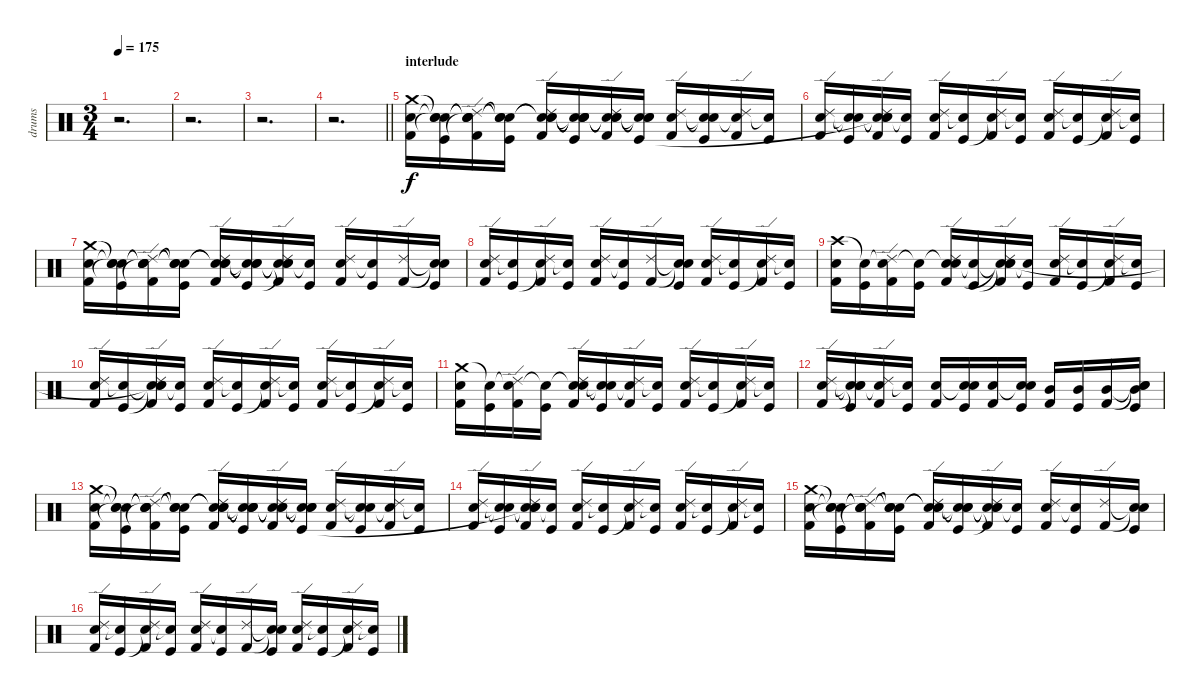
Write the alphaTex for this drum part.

\track ("drums" "drums") {instrument percussion}
\staff {score}
\articulation defaults
\ts (3 4)
\tempo 175
\clef neutral
\ks c
r.2{d dy f} |
r.2{d} |
r.2{d} |
\barLineRight lightlight
r.2{d} |
\section ("" "interlude")
("Crash medium (hit)" "Snare (hit) 2" "Kick (hit) 2").16 ("Snare (hit)"{t} "Snare (hit)"{t} "Snare (hit)"{t} "Kick (hit)").16 ("Snare (hit)"{t} "Snare (hit)"{t} "Ride (edge) 2" "Snare (hit)"{t} "Kick (hit) 2").16 ("Snare (hit)"{t} "Snare (hit)"{t} "Snare (hit)"{t} "Kick (hit)").16 ("Snare (hit)"{t} "Snare (hit)"{t} "Ride (edge) 2" "Snare (hit) 2" "Kick (hit) 2").16 ("Snare (hit)"{t} "Snare (hit)"{t} "Snare (hit)"{t} "Snare (hit)"{t} "Kick (hit)").16 ("Snare (hit)"{t} "Snare (hit)"{t} "Ride (edge) 2" "Snare (hit)"{t} "Kick (hit) 2").16 ("Snare (hit)"{t} "Snare (hit)"{t} "Snare (hit)"{t} "Kick (hit)").16 ("Ride (edge) 2" "Snare (hit) 2" "Kick (hit) 2").16 ("Snare (hit)"{t} "Snare (hit)"{t} "Kick (hit)").16 ("Ride (edge) 2" "Snare (hit)"{t} "Kick (hit) 2").16 ("Snare (hit)"{t} "Kick (hit)").16 |
("Ride (edge) 2" "Snare (hit) 2" "Kick (hit) 2").16 ("Snare (hit)"{t} "Snare (hit)"{t} "Kick (hit)").16 ("Snare (hit)"{t} "Snare (hit)"{t} "Ride (edge) 2" "Snare (hit)"{t} "Kick (hit) 2").16 ("Snare (hit)"{t} "Kick (hit)").16 ("Ride (edge) 2" "Snare (hit) 2" "Kick (hit) 2").16 ("Snare (hit)"{t} "Kick (hit)").16 ("Ride (edge) 2" "Snare (hit)"{t} "Kick (hit) 2").16 ("Snare (hit)"{t} "Kick (hit)").16 ("Ride (edge) 2" "Snare (hit) 2" "Kick (hit) 2").16 ("Snare (hit)"{t} "Kick (hit)").16 ("Ride (edge) 2" "Snare (hit)"{t} "Kick (hit) 2").16 ("Snare (hit)"{t} "Kick (hit)").16 |
("Crash medium (hit)" "Snare (hit) 2" "Kick (hit) 2").16 ("Snare (hit)"{t} "Snare (hit)"{t} "Snare (hit)"{t} "Kick (hit)").16 ("Snare (hit)"{t} "Snare (hit)"{t} "Ride (edge) 2" "Snare (hit)"{t} "Kick (hit) 2").16 ("Snare (hit)"{t} "Snare (hit)"{t} "Snare (hit)"{t} "Kick (hit)").16 ("Snare (hit)"{t} "Snare (hit)"{t} "Ride (edge) 2" "Snare (hit) 2" "Kick (hit) 2").16 ("Snare (hit)"{t} "Snare (hit)"{t} "Snare (hit)"{t} "Kick (hit)").16 ("Snare (hit)"{t} "Snare (hit)"{t} "Ride (edge) 2" "Snare (hit)"{t} "Kick (hit) 2").16 ("Snare (hit)"{t} "Kick (hit)").16 ("Snare (hit) 2" "Ride (edge) 2" "Kick (hit) 2").16 ("Snare (hit)"{t} "Kick (hit)").16 ("Ride (edge) 2" "Kick (hit) 2").16 ("Snare (hit)"{t} "Snare (hit)"{t} "Kick (hit)").16 |
("Ride (edge) 2" "Snare (hit) 2" "Kick (hit) 2").16 ("Snare (hit)"{t} "Kick (hit)").16 ("Ride (edge) 2" "Snare (hit)"{t} "Kick (hit) 2").16 ("Snare (hit)"{t} "Kick (hit)").16 ("Snare (hit) 2" "Ride (edge) 2" "Kick (hit) 2").16 ("Snare (hit)"{t} "Kick (hit)").16 ("Ride (edge) 2" "Kick (hit) 2").16 ("Snare (hit)"{t} "Snare (hit)"{t} "Kick (hit)").16 ("Ride (edge) 2" "Snare (hit) 2" "Kick (hit) 2").16 ("Snare (hit)"{t} "Kick (hit)").16 ("Ride (edge) 2" "Snare (hit)"{t} "Kick (hit) 2").16 ("Snare (hit)"{t} "Kick (hit)").16 |
("Crash high (hit)" "Snare (hit) 2" "Kick (hit) 2").16 ("Snare (hit)"{t} "Kick (hit)").16 ("Snare (hit)"{t} "Ride (edge) 2" "Kick (hit) 2").16 ("Snare (hit)"{t} "Kick (hit)").16 ("Snare (hit)"{t} "Ride (edge) 2" "Snare (hit) 2" "Kick (hit) 2").16 ("Snare (hit)"{t} "Kick (hit)").16 ("Snare (hit)"{t} "Snare (hit)"{t} "Ride (edge) 2" "Snare (hit)"{t} "Kick (hit) 2").16 ("Snare (hit)"{t} "Kick (hit)").16 ("Ride (edge) 2" "Snare (hit) 2" "Kick (hit) 2").16 ("Snare (hit)"{t} "Kick (hit)").16 ("Ride (edge) 2" "Snare (hit)"{t} "Kick (hit) 2").16 ("Snare (hit)"{t} "Kick (hit)").16 |
("Ride (edge) 2" "Snare (hit) 2" "Kick (hit) 2").16 ("Snare (hit)"{t} "Kick (hit)").16 ("Snare (hit)"{t} "Snare (hit)"{t} "Ride (edge) 2" "Snare (hit)"{t} "Kick (hit) 2").16 ("Snare (hit)"{t} "Kick (hit)").16 ("Ride (edge) 2" "Snare (hit) 2" "Kick (hit) 2").16 ("Snare (hit)"{t} "Kick (hit)").16 ("Ride (edge) 2" "Snare (hit)"{t} "Kick (hit) 2").16 ("Snare (hit)"{t} "Kick (hit)").16 ("Ride (edge) 2" "Snare (hit) 2" "Kick (hit) 2").16 ("Snare (hit)"{t} "Kick (hit)").16 ("Ride (edge) 2" "Snare (hit)"{t} "Kick (hit) 2").16 ("Snare (hit)"{t} "Kick (hit)").16 |
("Crash medium (hit)" "Snare (hit) 2" "Kick (hit) 2").16 ("Snare (hit)"{t} "Kick (hit)").16 ("Snare (hit)"{t} "Ride (edge) 2" "Kick (hit) 2").16 ("Snare (hit)"{t} "Kick (hit)").16 ("Snare (hit)"{t} "Ride (edge) 2" "Snare (hit) 2" "Kick (hit) 2").16 ("Snare (hit)"{t} "Snare (hit)"{t} "Kick (hit)").16 ("Ride (edge) 2" "Snare (hit)"{t} "Kick (hit) 2").16 ("Snare (hit)"{t} "Kick (hit)").16 ("Ride (edge) 2" "Snare (hit) 2" "Kick (hit) 2").16 ("Snare (hit)"{t} "Kick (hit)").16 ("Ride (edge) 2" "Snare (hit)"{t} "Kick (hit) 2").16 ("Snare (hit)"{t} "Kick (hit)").16 |
("Ride (edge) 2" "Snare (hit) 2" "Kick (hit) 2").16 ("Snare (hit)"{t} "Snare (hit)"{t} "Snare (hit)"{t} "Kick (hit)").16 ("Ride (edge) 2" "Snare (hit)"{t} "Kick (hit) 2").16 ("Snare (hit)"{t} "Kick (hit)").16 ("Snare (hit) 2" "Kick (hit) 2").16 ("Snare (hit)"{t} "Snare (hit) 2" "Kick (hit)").16 ("Snare (hit) 2" "Kick (hit) 2").16 ("Snare (hit)"{t} "Snare (hit) 2" "Kick (hit)").16 ("Mid Tom (hit)" "Kick (hit) 2").16 ("Mid Tom (hit)" "Kick (hit)").16 ("Mid Tom (hit)" "Kick (hit) 2").16 ("Snare (hit)"{t} "Snare (hit)"{t} "Mid Tom (hit)" "Kick (hit)").16 |
("Crash medium (hit)" "Snare (hit) 2" "Kick (hit) 2").16 ("Snare (hit)"{t} "Snare (hit)"{t} "Snare (hit)"{t} "Kick (hit)").16 ("Snare (hit)"{t} "Snare (hit)"{t} "Ride (edge) 2" "Snare (hit)"{t} "Kick (hit) 2").16 ("Snare (hit)"{t} "Snare (hit)"{t} "Snare (hit)"{t} "Kick (hit)").16 ("Snare (hit)"{t} "Snare (hit)"{t} "Ride (edge) 2" "Snare (hit) 2" "Kick (hit) 2").16 ("Snare (hit)"{t} "Snare (hit)"{t} "Snare (hit)"{t} "Snare (hit)"{t} "Kick (hit)").16 ("Snare (hit)"{t} "Snare (hit)"{t} "Ride (edge) 2" "Snare (hit)"{t} "Kick (hit) 2").16 ("Snare (hit)"{t} "Snare (hit)"{t} "Snare (hit)"{t} "Kick (hit)").16 ("Ride (edge) 2" "Snare (hit) 2" "Kick (hit) 2").16 ("Snare (hit)"{t} "Snare (hit)"{t} "Kick (hit)").16 ("Ride (edge) 2" "Snare (hit)"{t} "Kick (hit) 2").16 ("Snare (hit)"{t} "Kick (hit)").16 |
("Ride (edge) 2" "Snare (hit) 2" "Kick (hit) 2").16 ("Snare (hit)"{t} "Snare (hit)"{t} "Kick (hit)").16 ("Snare (hit)"{t} "Snare (hit)"{t} "Ride (edge) 2" "Snare (hit)"{t} "Kick (hit) 2").16 ("Snare (hit)"{t} "Kick (hit)").16 ("Ride (edge) 2" "Snare (hit) 2" "Kick (hit) 2").16 ("Snare (hit)"{t} "Kick (hit)").16 ("Ride (edge) 2" "Snare (hit)"{t} "Kick (hit) 2").16 ("Snare (hit)"{t} "Kick (hit)").16 ("Ride (edge) 2" "Snare (hit) 2" "Kick (hit) 2").16 ("Snare (hit)"{t} "Kick (hit)").16 ("Ride (edge) 2" "Snare (hit)"{t} "Kick (hit) 2").16 ("Snare (hit)"{t} "Kick (hit)").16 |
("Crash medium (hit)" "Snare (hit) 2" "Kick (hit) 2").16 ("Snare (hit)"{t} "Snare (hit)"{t} "Snare (hit)"{t} "Kick (hit)").16 ("Snare (hit)"{t} "Snare (hit)"{t} "Ride (edge) 2" "Snare (hit)"{t} "Kick (hit) 2").16 ("Snare (hit)"{t} "Snare (hit)"{t} "Snare (hit)"{t} "Kick (hit)").16 ("Snare (hit)"{t} "Snare (hit)"{t} "Ride (edge) 2" "Snare (hit) 2" "Kick (hit) 2").16 ("Snare (hit)"{t} "Snare (hit)"{t} "Snare (hit)"{t} "Kick (hit)").16 ("Snare (hit)"{t} "Snare (hit)"{t} "Ride (edge) 2" "Snare (hit)"{t} "Kick (hit) 2").16 ("Snare (hit)"{t} "Kick (hit)").16 ("Snare (hit) 2" "Ride (edge) 2" "Kick (hit) 2").16 ("Snare (hit)"{t} "Kick (hit)").16 ("Ride (edge) 2" "Kick (hit) 2").16 ("Snare (hit)"{t} "Snare (hit)"{t} "Kick (hit)").16 |
("Ride (edge) 2" "Snare (hit) 2" "Kick (hit) 2").16 ("Snare (hit)"{t} "Kick (hit)").16 ("Ride (edge) 2" "Snare (hit)"{t} "Kick (hit) 2").16 ("Snare (hit)"{t} "Kick (hit)").16 ("Snare (hit) 2" "Ride (edge) 2" "Kick (hit) 2").16 ("Snare (hit)"{t} "Kick (hit)").16 ("Ride (edge) 2" "Kick (hit) 2").16 ("Snare (hit)"{t} "Snare (hit)"{t} "Kick (hit)").16 ("Ride (edge) 2" "Snare (hit) 2" "Kick (hit) 2").16 ("Snare (hit)"{t} "Kick (hit)").16 ("Ride (edge) 2" "Snare (hit)"{t} "Kick (hit) 2").16 ("Snare (hit)"{t} "Kick (hit)").16
